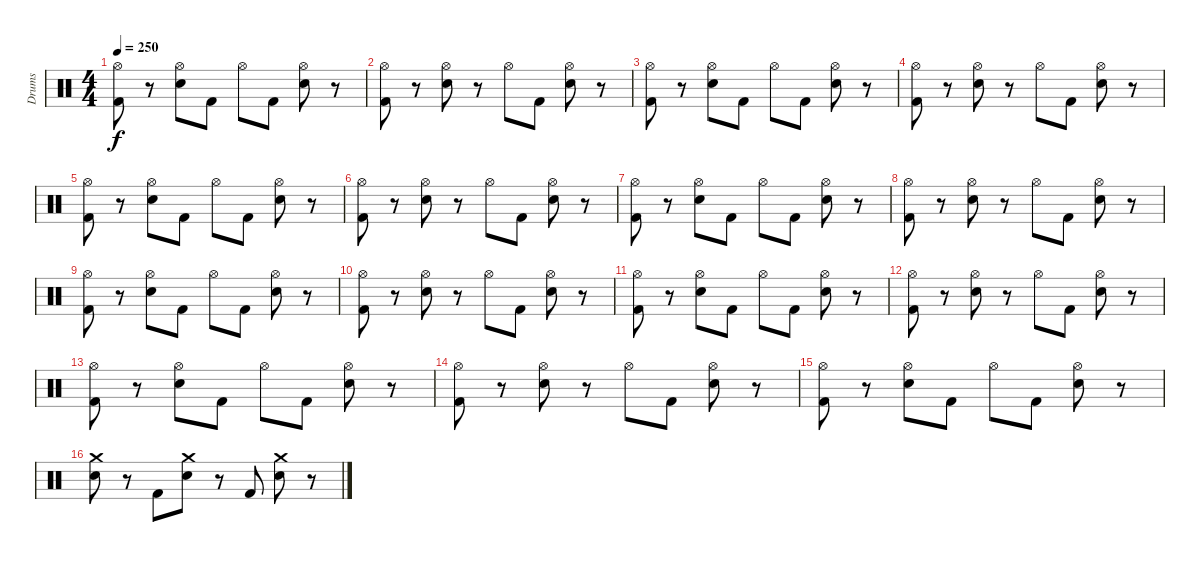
\track ("Drums" "Drums") {instrument percussion}
\staff {score}
\articulation defaults
\ts (4 4)
\tempo 250
\clef neutral
\ks c
("Hi-Hat (open)" "Kick (hit) 2").8{dy f} r.8 ("Hi-Hat (open)" "Electric Snare (hit)").8 "Kick (hit) 2".8 "Hi-Hat (open)".8 "Kick (hit) 2".8 ("Hi-Hat (open)" "Electric Snare (hit)").8 r.8 |
("Hi-Hat (open)" "Kick (hit) 2").8 r.8 ("Hi-Hat (open)" "Electric Snare (hit)").8 r.8 "Hi-Hat (open)".8 "Kick (hit) 2".8 ("Hi-Hat (open)" "Electric Snare (hit)").8 r.8 |
("Hi-Hat (open)" "Kick (hit) 2").8 r.8 ("Hi-Hat (open)" "Electric Snare (hit)").8 "Kick (hit) 2".8 "Hi-Hat (open)".8 "Kick (hit) 2".8 ("Hi-Hat (open)" "Electric Snare (hit)").8 r.8 |
("Hi-Hat (open)" "Kick (hit) 2").8 r.8 ("Hi-Hat (open)" "Electric Snare (hit)").8 r.8 "Hi-Hat (open)".8 "Kick (hit) 2".8 ("Hi-Hat (open)" "Electric Snare (hit)").8 r.8 |
("Hi-Hat (open)" "Kick (hit) 2").8 r.8 ("Hi-Hat (open)" "Electric Snare (hit)").8 "Kick (hit) 2".8 "Hi-Hat (open)".8 "Kick (hit) 2".8 ("Hi-Hat (open)" "Electric Snare (hit)").8 r.8 |
("Hi-Hat (open)" "Kick (hit) 2").8 r.8 ("Hi-Hat (open)" "Electric Snare (hit)").8 r.8 "Hi-Hat (open)".8 "Kick (hit) 2".8 ("Hi-Hat (open)" "Electric Snare (hit)").8 r.8 |
("Hi-Hat (open)" "Kick (hit) 2").8 r.8 ("Hi-Hat (open)" "Electric Snare (hit)").8 "Kick (hit) 2".8 "Hi-Hat (open)".8 "Kick (hit) 2".8 ("Hi-Hat (open)" "Electric Snare (hit)").8 r.8 |
("Hi-Hat (open)" "Kick (hit) 2").8 r.8 ("Hi-Hat (open)" "Electric Snare (hit)").8 r.8 "Hi-Hat (open)".8 "Kick (hit) 2".8 ("Hi-Hat (open)" "Electric Snare (hit)").8 r.8 |
("Hi-Hat (open)" "Kick (hit) 2").8 r.8 ("Hi-Hat (open)" "Electric Snare (hit)").8 "Kick (hit) 2".8 "Hi-Hat (open)".8 "Kick (hit) 2".8 ("Hi-Hat (open)" "Electric Snare (hit)").8 r.8 |
("Hi-Hat (open)" "Kick (hit) 2").8 r.8 ("Hi-Hat (open)" "Electric Snare (hit)").8 r.8 "Hi-Hat (open)".8 "Kick (hit) 2".8 ("Hi-Hat (open)" "Electric Snare (hit)").8 r.8 |
("Hi-Hat (open)" "Kick (hit) 2").8 r.8 ("Hi-Hat (open)" "Electric Snare (hit)").8 "Kick (hit) 2".8 "Hi-Hat (open)".8 "Kick (hit) 2".8 ("Hi-Hat (open)" "Electric Snare (hit)").8 r.8 |
("Hi-Hat (open)" "Kick (hit) 2").8 r.8 ("Hi-Hat (open)" "Electric Snare (hit)").8 r.8 "Hi-Hat (open)".8 "Kick (hit) 2".8 ("Hi-Hat (open)" "Electric Snare (hit)").8 r.8 |
("Hi-Hat (open)" "Kick (hit) 2").8 r.8 ("Hi-Hat (open)" "Electric Snare (hit)").8 "Kick (hit) 2".8 "Hi-Hat (open)".8 "Kick (hit) 2".8 ("Hi-Hat (open)" "Electric Snare (hit)").8 r.8 |
("Hi-Hat (open)" "Kick (hit) 2").8 r.8 ("Hi-Hat (open)" "Electric Snare (hit)").8 r.8 "Hi-Hat (open)".8 "Kick (hit) 2".8 ("Hi-Hat (open)" "Electric Snare (hit)").8 r.8 |
("Hi-Hat (open)" "Kick (hit) 2").8 r.8 ("Hi-Hat (open)" "Electric Snare (hit)").8 "Kick (hit) 2".8 "Hi-Hat (open)".8 "Kick (hit) 2".8 ("Hi-Hat (open)" "Electric Snare (hit)").8 r.8 |
("Electric Snare (hit)" "Crash medium (hit)").8 r.8 "Kick (hit) 2".8 ("Electric Snare (hit)" "Crash medium (hit)").8 r.8 "Kick (hit) 2".8 ("Crash medium (hit)" "Electric Snare (hit)").8 r.8
